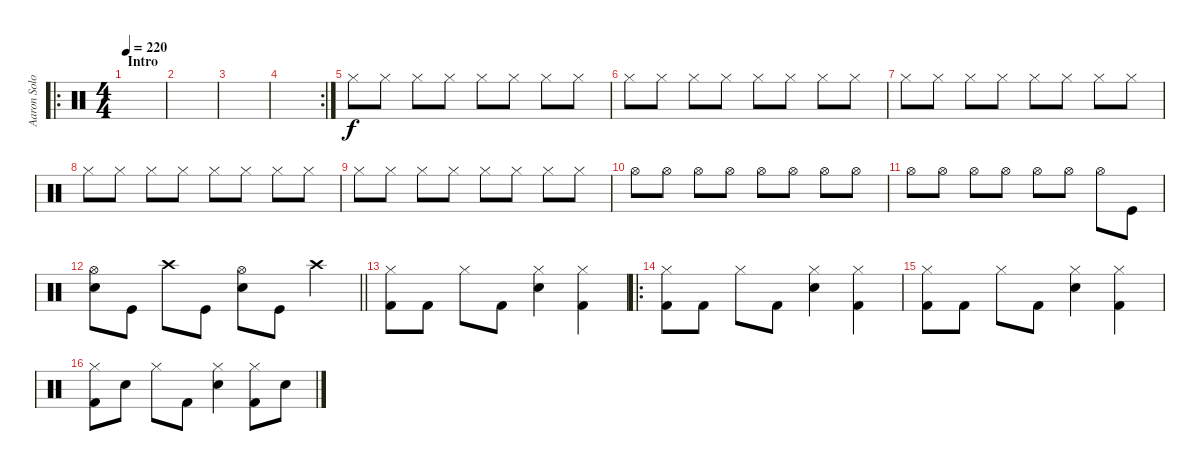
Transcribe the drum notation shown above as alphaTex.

\track ("Aaron Solowoniuk" "Aaron Solo") {instrument percussion}
\staff {score}
\articulation defaults
\ro
\ts (4 4)
\section ("" "Intro")
\tempo 220
\clef neutral
\ks c
|
|
|
\rc 2
|
"Hi-Hat (closed)".8 "Hi-Hat (closed)".8 "Hi-Hat (closed)".8 "Hi-Hat (closed)".8 "Hi-Hat (closed)".8 "Hi-Hat (closed)".8 "Hi-Hat (closed)".8 "Hi-Hat (closed)".8 |
"Hi-Hat (closed)".8 "Hi-Hat (closed)".8 "Hi-Hat (closed)".8 "Hi-Hat (closed)".8 "Hi-Hat (closed)".8 "Hi-Hat (closed)".8 "Hi-Hat (closed)".8 "Hi-Hat (closed)".8 |
"Hi-Hat (closed)".8 "Hi-Hat (closed)".8 "Hi-Hat (closed)".8 "Hi-Hat (closed)".8 "Hi-Hat (closed)".8 "Hi-Hat (closed)".8 "Hi-Hat (closed)".8 "Hi-Hat (closed)".8 |
"Hi-Hat (closed)".8 "Hi-Hat (closed)".8 "Hi-Hat (closed)".8 "Hi-Hat (closed)".8 "Hi-Hat (closed)".8 "Hi-Hat (closed)".8 "Hi-Hat (closed)".8 "Hi-Hat (closed)".8 |
"Hi-Hat (closed)".8 "Hi-Hat (closed)".8 "Hi-Hat (closed)".8 "Hi-Hat (closed)".8 "Hi-Hat (closed)".8 "Hi-Hat (closed)".8 "Hi-Hat (closed)".8 "Hi-Hat (closed)".8 |
"Hi-Hat (open)".8 "Hi-Hat (open)".8 "Hi-Hat (open)".8 "Hi-Hat (open)".8 "Hi-Hat (open)".8 "Hi-Hat (open)".8 "Hi-Hat (open)".8 "Hi-Hat (open)".8 |
"Hi-Hat (open)".8 "Hi-Hat (open)".8 "Hi-Hat (open)".8 "Hi-Hat (open)".8 "Hi-Hat (open)".8 "Hi-Hat (open)".8 "Hi-Hat (open)".8 "Kick (hit)".8 |
\barLineRight lightlight
("Hi-Hat (open)" "Snare (hit) 2").8 "Kick (hit)".8 "Crash high (hit)".8 "Kick (hit)".8 ("Hi-Hat (open)" "Snare (hit) 2").8 "Kick (hit)".8 "Crash high (hit)".4 |
("Hi-Hat (closed)" "Kick (hit) 2").8 "Kick (hit) 2".8 "Hi-Hat (closed)".8 "Kick (hit) 2".8 ("Hi-Hat (closed)" "Snare (hit) 2").4 ("Hi-Hat (closed)" "Kick (hit) 2").4 |
\ro
("Hi-Hat (closed)" "Kick (hit) 2").8 "Kick (hit) 2".8 "Hi-Hat (closed)".8 "Kick (hit) 2".8 ("Hi-Hat (closed)" "Snare (hit) 2").4 ("Hi-Hat (closed)" "Kick (hit) 2").4 |
("Hi-Hat (closed)" "Kick (hit) 2").8 "Kick (hit) 2".8 "Hi-Hat (closed)".8 "Kick (hit) 2".8 ("Hi-Hat (closed)" "Snare (hit) 2").4 ("Hi-Hat (closed)" "Kick (hit) 2").4 |
("Hi-Hat (closed)" "Kick (hit) 2").8 "Snare (hit) 2".8 "Hi-Hat (closed)".8 "Kick (hit) 2".8 ("Hi-Hat (closed)" "Snare (hit) 2").4 ("Hi-Hat (closed)" "Kick (hit) 2").8 "Snare (hit) 2".8
